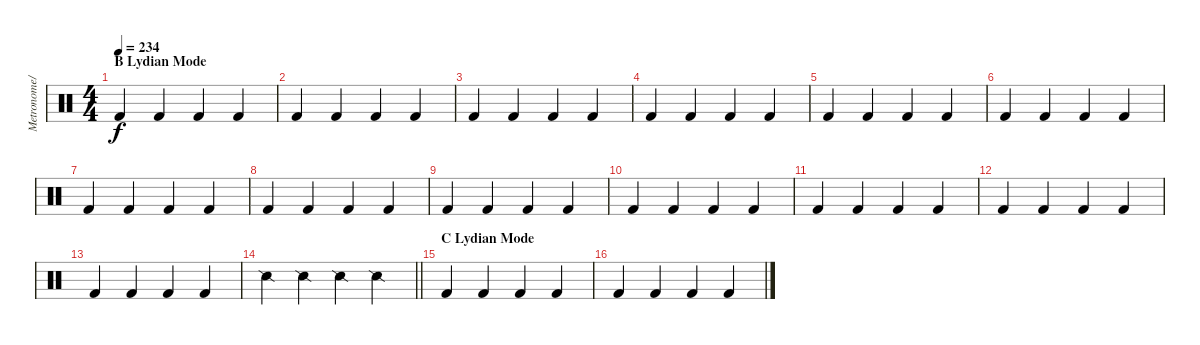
\track ("Metronome/Beat" "Metronome/") {instrument percussion}
\staff {score}
\articulation defaults
\ts (4 4)
\section ("" "B Lydian Mode")
\tempo 234
\clef neutral
\ks c "Kick (hit) 2".4{dy f} "Kick (hit) 2".4 "Kick (hit) 2".4 "Kick (hit) 2".4
|
"Kick (hit) 2".4 "Kick (hit) 2".4 "Kick (hit) 2".4 "Kick (hit) 2".4 |
"Kick (hit) 2".4 "Kick (hit) 2".4 "Kick (hit) 2".4 "Kick (hit) 2".4 |
"Kick (hit) 2".4 "Kick (hit) 2".4 "Kick (hit) 2".4 "Kick (hit) 2".4 |
"Kick (hit) 2".4 "Kick (hit) 2".4 "Kick (hit) 2".4 "Kick (hit) 2".4 |
"Kick (hit) 2".4 "Kick (hit) 2".4 "Kick (hit) 2".4 "Kick (hit) 2".4 |
"Kick (hit) 2".4 "Kick (hit) 2".4 "Kick (hit) 2".4 "Kick (hit) 2".4 |
"Kick (hit) 2".4 "Kick (hit) 2".4 "Kick (hit) 2".4 "Kick (hit) 2".4 |
"Kick (hit) 2".4 "Kick (hit) 2".4 "Kick (hit) 2".4 "Kick (hit) 2".4 |
"Kick (hit) 2".4 "Kick (hit) 2".4 "Kick (hit) 2".4 "Kick (hit) 2".4 |
"Kick (hit) 2".4 "Kick (hit) 2".4 "Kick (hit) 2".4 "Kick (hit) 2".4 |
"Kick (hit) 2".4 "Kick (hit) 2".4 "Kick (hit) 2".4 "Kick (hit) 2".4 |
"Kick (hit) 2".4 "Kick (hit) 2".4 "Kick (hit) 2".4 "Kick (hit) 2".4 |
\barLineRight lightlight "Snare (side stick) 2".4 "Snare (side stick) 2".4 "Snare (side stick) 2".4 "Snare (side stick) 2".4
|
\section ("" "C Lydian Mode")
"Kick (hit) 2".4 "Kick (hit) 2".4 "Kick (hit) 2".4 "Kick (hit) 2".4 |
"Kick (hit) 2".4 "Kick (hit) 2".4 "Kick (hit) 2".4 "Kick (hit) 2".4
